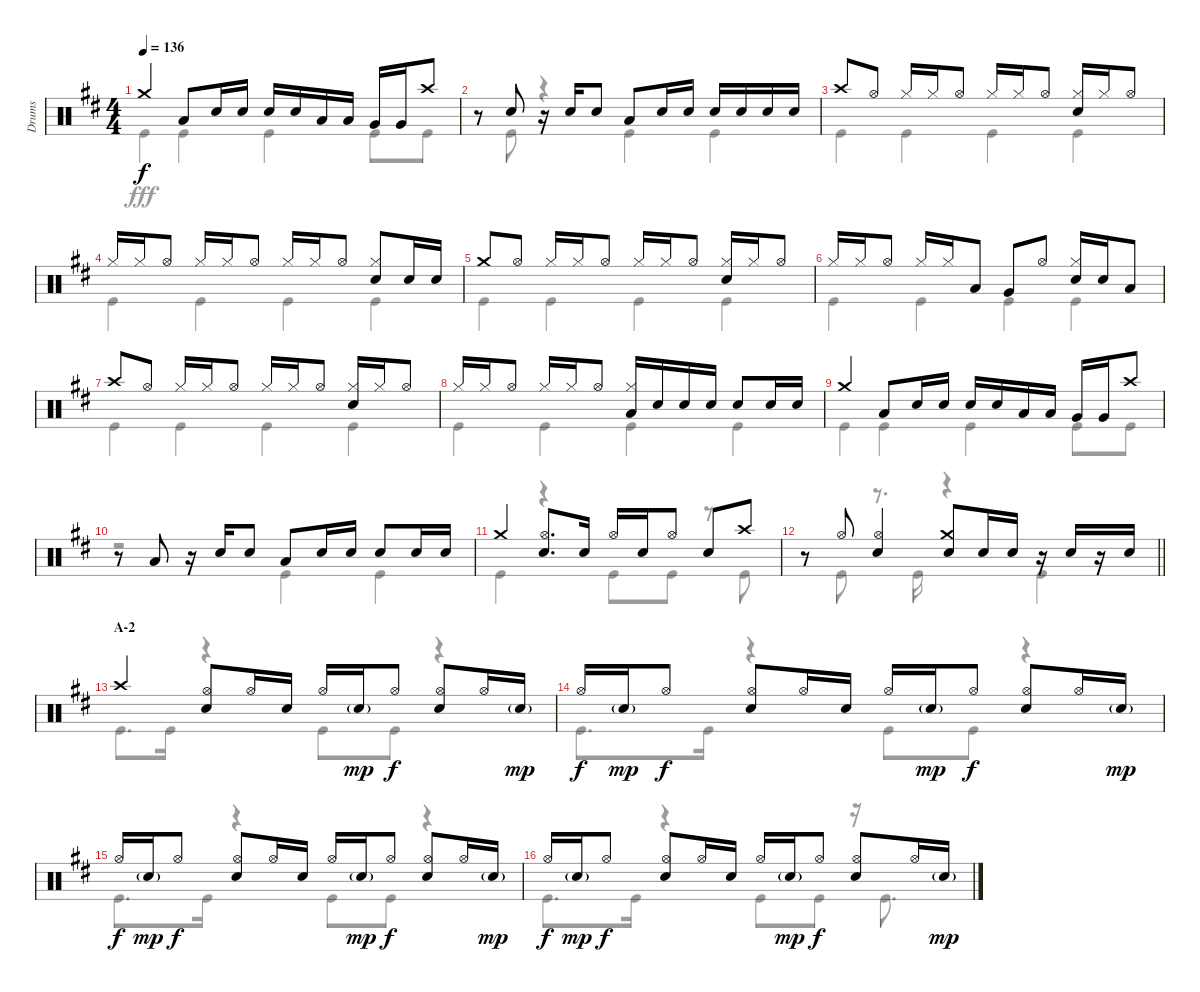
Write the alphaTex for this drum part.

\track ("Drums" "Drums") {instrument percussion}
\staff {score}
\articulation defaults
\voice
\ts (4 4)
\tempo 136
\clef neutral
\ks d "Crash medium (hit)".4{dy f} "Low Tom (hit)".8 "Snare (hit) 2".16 "Snare (hit) 2".16 "Snare (hit) 2".16 "Snare (hit) 2".16 "Low Tom (hit)".16 "Low Tom (hit)".16 "Very Low Tom (hit)".16 "Very Low Tom (hit)".16 "Crash high (hit)".8
|
r.8 "Snare (hit) 2".8 r.16 "Snare (hit) 2".16 "Snare (hit) 2".8 "Low Tom (hit)".8 "Snare (hit) 2".16 "Snare (hit) 2".16 "Snare (hit) 2".16 "Snare (hit) 2".16 "Snare (hit) 2".16 "Snare (hit) 2".16 |
"Crash high (hit)".8 "Hi-Hat (open)".8 "Hi-Hat (closed)".16 "Hi-Hat (closed)".16 "Hi-Hat (open)".8 "Hi-Hat (closed)".16 "Hi-Hat (closed)".16 "Hi-Hat (open)".8 ("Hi-Hat (closed)" "Snare (hit) 2").16 "Hi-Hat (closed)".16 "Hi-Hat (open)".8 |
"Hi-Hat (closed)".16 "Hi-Hat (closed)".16 "Hi-Hat (open)".8 "Hi-Hat (closed)".16 "Hi-Hat (closed)".16 "Hi-Hat (open)".8 "Hi-Hat (closed)".16 "Hi-Hat (closed)".16 "Hi-Hat (open)".8 ("Hi-Hat (closed)" "Snare (hit) 2").8 "Snare (hit) 2".16 "Snare (hit) 2".16 |
"Crash medium (hit)".8 "Hi-Hat (open)".8 "Hi-Hat (closed)".16 "Hi-Hat (closed)".16 "Hi-Hat (open)".8 "Hi-Hat (closed)".16 "Hi-Hat (closed)".16 "Hi-Hat (open)".8 ("Hi-Hat (closed)" "Snare (hit) 2").16 "Hi-Hat (closed)".16 "Hi-Hat (open)".8 |
"Hi-Hat (closed)".16 "Hi-Hat (closed)".16 "Hi-Hat (open)".8 "Hi-Hat (closed)".16 "Hi-Hat (closed)".16 "Low Tom (hit)".8 "Very Low Tom (hit)".8 "Hi-Hat (open)".8 ("Hi-Hat (closed)" "Snare (hit) 2").16 "Snare (hit) 2".16 "Low Tom (hit)".8 |
"Crash high (hit)".8 "Hi-Hat (open)".8 "Hi-Hat (closed)".16 "Hi-Hat (closed)".16 "Hi-Hat (open)".8 "Hi-Hat (closed)".16 "Hi-Hat (closed)".16 "Hi-Hat (open)".8 ("Hi-Hat (closed)" "Snare (hit) 2").16 "Hi-Hat (closed)".16 "Hi-Hat (open)".8 |
"Hi-Hat (closed)".16 "Hi-Hat (closed)".16 "Hi-Hat (open)".8 "Hi-Hat (closed)".16 "Hi-Hat (closed)".16 "Hi-Hat (open)".8 ("Hi-Hat (closed)" "Low Tom (hit)").16 "Snare (hit) 2".16 "Snare (hit) 2".16 "Snare (hit) 2".16 "Snare (hit) 2".8 "Snare (hit) 2".16 "Snare (hit) 2".16 |
"Crash medium (hit)".4 "Low Tom (hit)".8 "Snare (hit) 2".16 "Snare (hit) 2".16 "Snare (hit) 2".16 "Snare (hit) 2".16 "Low Tom (hit)".16 "Low Tom (hit)".16 "Very Low Tom (hit)".16 "Very Low Tom (hit)".16 "Crash high (hit)".8 |
r.8 "Low Tom (hit)".8 r.16 "Snare (hit) 2".16 "Snare (hit) 2".8 "Low Tom (hit)".8 "Snare (hit) 2".16 "Snare (hit) 2".16 "Snare (hit) 2".8 "Snare (hit) 2".16 "Snare (hit) 2".16 |
"Crash medium (hit)".4 ("Hi-Hat (open)" "Snare (hit) 2").8{d} "Snare (hit) 2".16 "Hi-Hat (open)".16 "Snare (hit) 2".16 "Hi-Hat (open)".8 "Snare (hit) 2".8 "Crash high (hit)".8 |
\barLineRight lightlight
r.8 "Hi-Hat (open)".8 ("Hi-Hat (open)" "Snare (hit) 2").4 ("Crash medium (hit)" "Snare (hit) 2").8 "Snare (hit) 2".16 "Snare (hit) 2".16 r.16 "Snare (hit) 2".16 r.16 "Snare (hit) 2".16 |
\section ("" "A-2")
"Crash high (hit)".4 ("Hi-Hat (open)" "Snare (hit) 2").8 "Hi-Hat (open)".16 "Snare (hit) 2".16 "Hi-Hat (open)".16 "Snare (hit) 2"{g}.16{dy mp} "Hi-Hat (open)".8{dy f} ("Hi-Hat (open)" "Snare (hit) 2").8 "Hi-Hat (open)".16 "Snare (hit) 2"{g}.16{dy mp} |
"Hi-Hat (open)".16{dy f} "Snare (hit) 2"{g}.16{dy mp} "Hi-Hat (open)".8{dy f} ("Hi-Hat (open)" "Snare (hit) 2").8 "Hi-Hat (open)".16 "Snare (hit) 2".16 "Hi-Hat (open)".16 "Snare (hit) 2"{g}.16{dy mp} "Hi-Hat (open)".8{dy f} ("Hi-Hat (open)" "Snare (hit) 2").8 "Hi-Hat (open)".16 "Snare (hit) 2"{g}.16{dy mp} |
"Hi-Hat (open)".16{dy f} "Snare (hit) 2"{g}.16{dy mp} "Hi-Hat (open)".8{dy f} ("Hi-Hat (open)" "Snare (hit) 2").8 "Hi-Hat (open)".16 "Snare (hit) 2".16 "Hi-Hat (open)".16 "Snare (hit) 2"{g}.16{dy mp} "Hi-Hat (open)".8{dy f} ("Hi-Hat (open)" "Snare (hit) 2").8 "Hi-Hat (open)".16 "Snare (hit) 2"{g}.16{dy mp} |
"Hi-Hat (open)".16{dy f} "Snare (hit) 2"{g}.16{dy mp} "Hi-Hat (open)".8{dy f} ("Hi-Hat (open)" "Snare (hit) 2").8 "Hi-Hat (open)".16 "Snare (hit) 2".16 "Hi-Hat (open)".16 "Snare (hit) 2"{g}.16{dy mp} "Hi-Hat (open)".8{dy f} ("Hi-Hat (open)" "Snare (hit) 2").8 "Hi-Hat (open)".16 "Snare (hit) 2"{g}.16{dy mp}
\voice
\clef neutral
\ottava regular
\simile none
\ks d "Kick (hit)".4{dy fff} "Kick (hit)".4 "Kick (hit)".4 "Kick (hit)".8 "Kick (hit)".8
|
r.8 "Kick (hit)".8 r.4 "Kick (hit)".4 "Kick (hit)".4 |
"Kick (hit)".4 "Kick (hit)".4 "Kick (hit)".4 "Kick (hit)".4 |
"Kick (hit)".4 "Kick (hit)".4 "Kick (hit)".4 "Kick (hit)".4 |
"Kick (hit)".4 "Kick (hit)".4 "Kick (hit)".4 "Kick (hit)".4 |
"Kick (hit)".4 "Kick (hit)".4 "Kick (hit)".4 "Kick (hit)".4 |
"Kick (hit)".4 "Kick (hit)".4 "Kick (hit)".4 "Kick (hit)".4 |
"Kick (hit)".4 "Kick (hit)".4 "Kick (hit)".4 "Kick (hit)".4 |
"Kick (hit)".4 "Kick (hit)".4 "Kick (hit)".4 "Kick (hit)".8 "Kick (hit)".8 |
r.2 "Kick (hit)".4 "Kick (hit)".4 |
"Kick (hit)".4 r.4 "Kick (hit)".8 "Kick (hit)".8 r.8 "Kick (hit)".8 |
\barLineRight lightlight
r.8 "Kick (hit)".8 r.8{d} "Kick (hit)".16 r.4 "Kick (hit)".4 |
"Kick (hit)".8{d} "Kick (hit)".16 r.4 "Kick (hit)".8 "Kick (hit)".8 r.4 |
"Kick (hit)".8{d} "Kick (hit)".16 r.4 "Kick (hit)".8 "Kick (hit)".8 r.4 |
"Kick (hit)".8{d} "Kick (hit)".16 r.4 "Kick (hit)".8 "Kick (hit)".8 r.4 |
"Kick (hit)".8{d} "Kick (hit)".16 r.4 "Kick (hit)".8 "Kick (hit)".8 r.16 "Kick (hit)".8{d}
